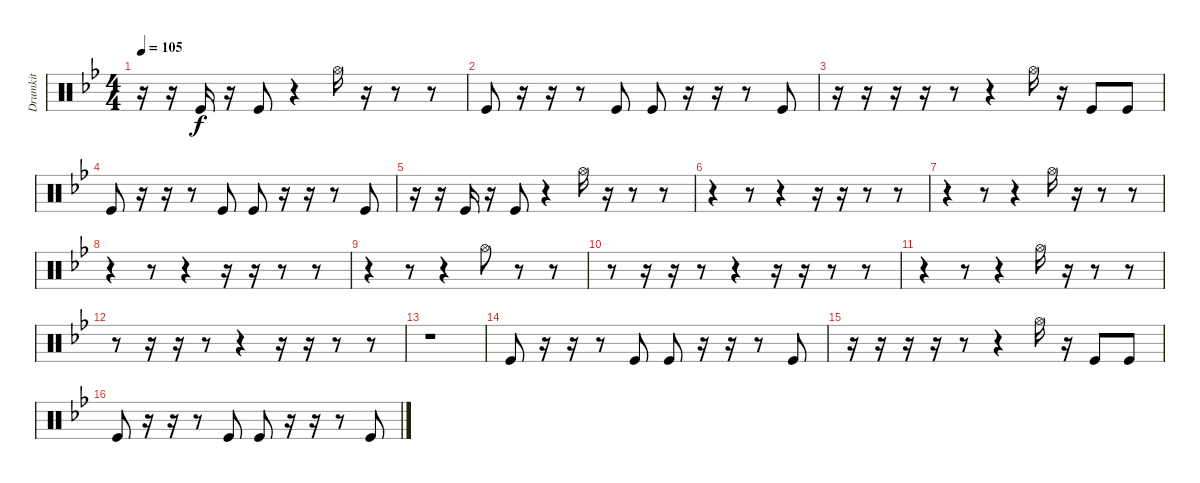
\track ("Drumkit" "Drumkit") {instrument percussion}
\staff {score}
\articulation defaults
\ts (4 4)
\tempo 105
\clef neutral
\ks gminor
r.16{dy f} r.16 "Kick (hit)".16 r.16 "Kick (hit)".8 r.4 "Hi-Hat (open)".16 r.16 r.8 r.8 |
"Kick (hit)".8 r.16 r.16 r.8 "Kick (hit)".8 "Kick (hit)".8 r.16 r.16 r.8 "Kick (hit)".8 |
r.16 r.16 r.16 r.16 r.8 r.4 "Hi-Hat (open)".16 r.16 "Kick (hit)".8 "Kick (hit)".8 |
"Kick (hit)".8 r.16 r.16 r.8 "Kick (hit)".8 "Kick (hit)".8 r.16 r.16 r.8 "Kick (hit)".8 |
r.16 r.16 "Kick (hit)".16 r.16 "Kick (hit)".8 r.4 "Hi-Hat (open)".16 r.16 r.8 r.8 |
r.4 r.8 r.4 r.16 r.16 r.8 r.8 |
r.4 r.8 r.4 "Hi-Hat (open)".16 r.16 r.8 r.8 |
r.4 r.8 r.4 r.16 r.16 r.8 r.8 |
r.4 r.8 r.4 "Hi-Hat (open)".8 r.8 r.8 |
r.8 r.16 r.16 r.8 r.4 r.16 r.16 r.8 r.8 |
r.4 r.8 r.4 "Hi-Hat (open)".16 r.16 r.8 r.8 |
r.8 r.16 r.16 r.8 r.4 r.16 r.16 r.8 r.8 |
r.1 |
"Kick (hit)".8 r.16 r.16 r.8 "Kick (hit)".8 "Kick (hit)".8 r.16 r.16 r.8 "Kick (hit)".8 |
r.16 r.16 r.16 r.16 r.8 r.4 "Hi-Hat (open)".16 r.16 "Kick (hit)".8 "Kick (hit)".8 |
"Kick (hit)".8 r.16 r.16 r.8 "Kick (hit)".8 "Kick (hit)".8 r.16 r.16 r.8 "Kick (hit)".8
